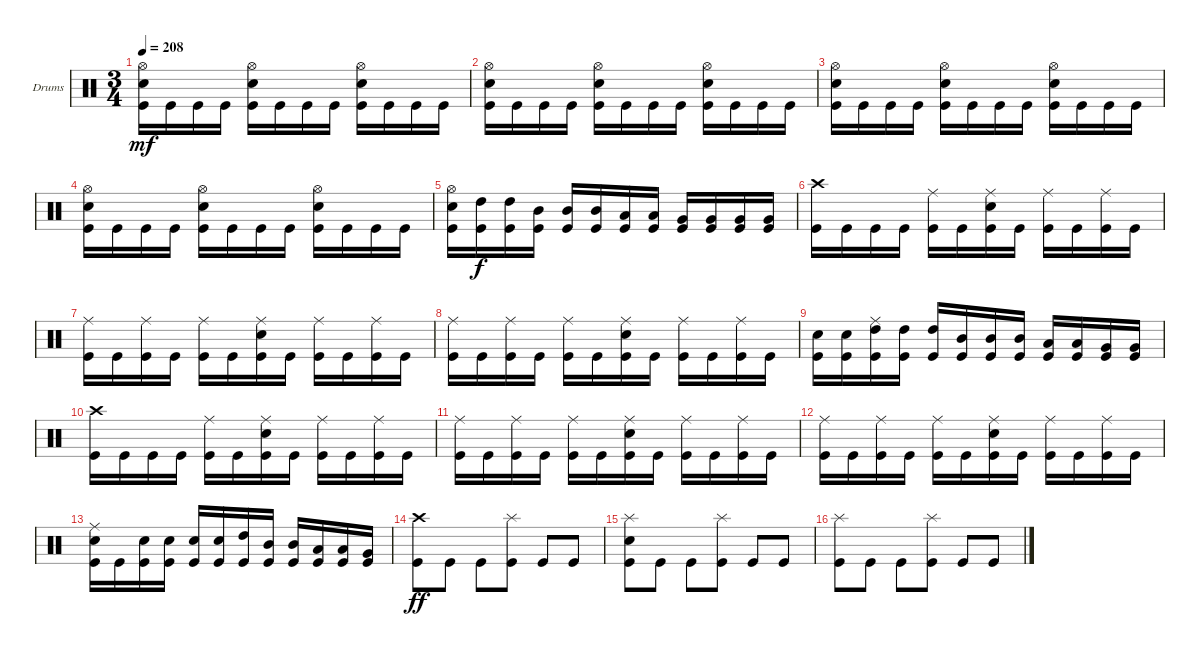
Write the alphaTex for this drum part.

\bracketExtendMode groupsimilarinstruments
\firstSystemTrackNameOrientation horizontal
\otherSystemsTrackNameOrientation horizontal
\track ("Drumkit" "Drums") {instrument percussion}
\staff {score}
\articulation defaults
\ts (3 4)
\tempo 208
\clef neutral
\ks c
("Hi-Hat (open)" "Snare (hit) 2" "Kick (hit)").16{dy mf} "Kick (hit)".16 "Kick (hit)".16 "Kick (hit)".16 ("Hi-Hat (open)" "Snare (hit) 2" "Kick (hit)").16 "Kick (hit)".16 "Kick (hit)".16 "Kick (hit)".16 ("Hi-Hat (open)" "Snare (hit) 2" "Kick (hit)").16 "Kick (hit)".16 "Kick (hit)".16 "Kick (hit)".16 |
("Hi-Hat (open)" "Snare (hit) 2" "Kick (hit)").16 "Kick (hit)".16 "Kick (hit)".16 "Kick (hit)".16 ("Hi-Hat (open)" "Snare (hit) 2" "Kick (hit)").16 "Kick (hit)".16 "Kick (hit)".16 "Kick (hit)".16 ("Hi-Hat (open)" "Snare (hit) 2" "Kick (hit)").16 "Kick (hit)".16 "Kick (hit)".16 "Kick (hit)".16 |
("Hi-Hat (open)" "Snare (hit) 2" "Kick (hit)").16 "Kick (hit)".16 "Kick (hit)".16 "Kick (hit)".16 ("Hi-Hat (open)" "Snare (hit) 2" "Kick (hit)").16 "Kick (hit)".16 "Kick (hit)".16 "Kick (hit)".16 ("Hi-Hat (open)" "Snare (hit) 2" "Kick (hit)").16 "Kick (hit)".16 "Kick (hit)".16 "Kick (hit)".16 |
("Hi-Hat (open)" "Snare (hit) 2" "Kick (hit)").16 "Kick (hit)".16 "Kick (hit)".16 "Kick (hit)".16 ("Hi-Hat (open)" "Snare (hit) 2" "Kick (hit)").16 "Kick (hit)".16 "Kick (hit)".16 "Kick (hit)".16 ("Hi-Hat (open)" "Snare (hit) 2" "Kick (hit)").16 "Kick (hit)".16 "Kick (hit)".16 "Kick (hit)".16 |
("Hi-Hat (open)" "Snare (hit) 2" "Kick (hit)").16 ("High Tom (hit)" "Kick (hit)").16{dy f} ("High Tom (hit)" "Kick (hit)").16 ("Mid Tom (hit)" "Kick (hit)").16 ("Mid Tom (hit)" "Kick (hit)").16 ("Mid Tom (hit)" "Kick (hit)").16 ("Low Tom (hit)" "Kick (hit)").16 ("Low Tom (hit)" "Kick (hit)").16 ("Very Low Tom (hit)" "Kick (hit)").16 ("Very Low Tom (hit)" "Kick (hit)").16 ("Very Low Tom (hit)" "Kick (hit)").16 ("Very Low Tom (hit)" "Kick (hit)").16 |
("Crash high (hit)" "Kick (hit)").16 "Kick (hit)".16 "Kick (hit)".16 "Kick (hit)".16 ("Ride (middle)" "Kick (hit)").16 "Kick (hit)".16 ("Ride (middle)" "Snare (hit) 2" "Kick (hit)").16 "Kick (hit)".16 ("Ride (middle)" "Kick (hit)").16 "Kick (hit)".16 ("Ride (middle)" "Kick (hit)").16 "Kick (hit)".16 |
("Ride (middle)" "Kick (hit)").16 "Kick (hit)".16 ("Ride (middle)" "Kick (hit)").16 "Kick (hit)".16 ("Ride (middle)" "Kick (hit)").16 "Kick (hit)".16 ("Ride (middle)" "Snare (hit) 2" "Kick (hit)").16 "Kick (hit)".16 ("Ride (middle)" "Kick (hit)").16 "Kick (hit)".16 ("Ride (middle)" "Kick (hit)").16 "Kick (hit)".16 |
("Ride (middle)" "Kick (hit)").16 "Kick (hit)".16 ("Ride (middle)" "Kick (hit)").16 "Kick (hit)".16 ("Ride (middle)" "Kick (hit)").16 "Kick (hit)".16 ("Ride (middle)" "Snare (hit) 2" "Kick (hit)").16 "Kick (hit)".16 ("Ride (middle)" "Kick (hit)").16 "Kick (hit)".16 ("Ride (middle)" "Kick (hit)").16 "Kick (hit)".16 |
("Snare (hit) 2" "Kick (hit)").16 ("Snare (hit) 2" "Kick (hit)").16 ("Ride (middle)" "High Tom (hit)" "Kick (hit)").16 ("High Tom (hit)" "Kick (hit)").16 ("High Tom (hit)" "Kick (hit)").16 ("Mid Tom (hit)" "Kick (hit)").16 ("Mid Tom (hit)" "Kick (hit)").16 ("Mid Tom (hit)" "Kick (hit)").16 ("Low Tom (hit)" "Kick (hit)").16 ("Low Tom (hit)" "Kick (hit)").16 ("Very Low Tom (hit)" "Kick (hit)").16 ("Very Low Tom (hit)" "Kick (hit)").16 |
("Crash high (hit)" "Kick (hit)").16 "Kick (hit)".16 "Kick (hit)".16 "Kick (hit)".16 ("Ride (middle)" "Kick (hit)").16 "Kick (hit)".16 ("Ride (middle)" "Snare (hit) 2" "Kick (hit)").16 "Kick (hit)".16 ("Ride (middle)" "Kick (hit)").16 "Kick (hit)".16 ("Ride (middle)" "Kick (hit)").16 "Kick (hit)".16 |
("Ride (middle)" "Kick (hit)").16 "Kick (hit)".16 ("Ride (middle)" "Kick (hit)").16 "Kick (hit)".16 ("Ride (middle)" "Kick (hit)").16 "Kick (hit)".16 ("Ride (middle)" "Snare (hit) 2" "Kick (hit)").16 "Kick (hit)".16 ("Ride (middle)" "Kick (hit)").16 "Kick (hit)".16 ("Ride (middle)" "Kick (hit)").16 "Kick (hit)".16 |
("Ride (middle)" "Kick (hit)").16 "Kick (hit)".16 ("Ride (middle)" "Kick (hit)").16 "Kick (hit)".16 ("Ride (middle)" "Kick (hit)").16 "Kick (hit)".16 ("Ride (middle)" "Snare (hit) 2" "Kick (hit)").16 "Kick (hit)".16 ("Ride (middle)" "Kick (hit)").16 "Kick (hit)".16 ("Ride (middle)" "Kick (hit)").16 "Kick (hit)".16 |
("Ride (middle)" "Snare (hit) 2" "Kick (hit)").16 "Kick (hit)".16 ("Snare (hit) 2" "Kick (hit)").16 ("Snare (hit) 2" "Kick (hit)").16 ("Snare (hit) 2" "Kick (hit)").16 ("Snare (hit) 2" "Kick (hit)").16 ("High Tom (hit)" "Kick (hit)").16 ("Mid Tom (hit)" "Kick (hit)").16 ("Mid Tom (hit)" "Kick (hit)").16 ("Low Tom (hit)" "Kick (hit)").16 ("Low Tom (hit)" "Kick (hit)").16 ("Very Low Tom (hit)" "Kick (hit)").16 |
("Crash high (hit)" "Kick (hit)").8{dy ff} "Kick (hit)".8 "Kick (hit)".8 ("Splash (hit)" "Kick (hit)").8 "Kick (hit)".8 "Kick (hit)".8 |
("Splash (hit)" "Snare (hit) 2" "Kick (hit)").8 "Kick (hit)".8 "Kick (hit)".8 ("Splash (hit)" "Kick (hit)").8 "Kick (hit)".8 "Kick (hit)".8 |
("Splash (hit)" "Kick (hit)").8 "Kick (hit)".8 "Kick (hit)".8 ("Splash (hit)" "Kick (hit)").8 "Kick (hit)".8 "Kick (hit)".8
